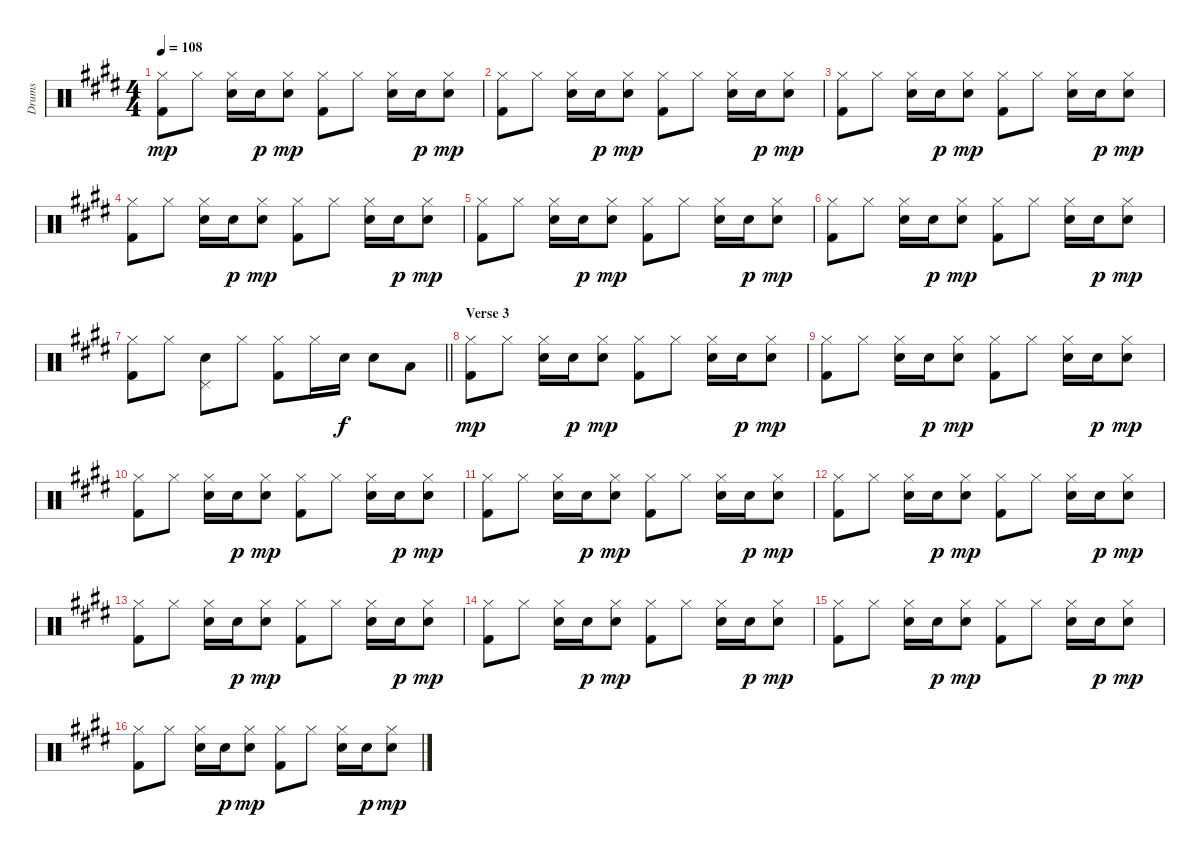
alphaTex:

\track ("Drums" "Drums") {instrument percussion bank 7}
\staff {score}
\articulation defaults
\ts (4 4)
\tempo 108
\clef neutral
\ks e
("Hi-Hat (closed)" "Kick (hit) 2").8{dy mp} "Hi-Hat (closed)".8 ("Electric Snare (hit)" "Hi-Hat (closed)").16 "Electric Snare (hit)".16{dy p} ("Electric Snare (hit)" "Hi-Hat (closed)").8{dy mp} ("Hi-Hat (closed)" "Kick (hit) 2").8 "Hi-Hat (closed)".8 ("Electric Snare (hit)" "Hi-Hat (closed)").16 "Electric Snare (hit)".16{dy p} ("Electric Snare (hit)" "Hi-Hat (closed)").8{dy mp} |
("Hi-Hat (closed)" "Kick (hit) 2").8 "Hi-Hat (closed)".8 ("Electric Snare (hit)" "Hi-Hat (closed)").16 "Electric Snare (hit)".16{dy p} ("Electric Snare (hit)" "Hi-Hat (closed)").8{dy mp} ("Hi-Hat (closed)" "Kick (hit) 2").8 "Hi-Hat (closed)".8 ("Electric Snare (hit)" "Hi-Hat (closed)").16 "Electric Snare (hit)".16{dy p} ("Electric Snare (hit)" "Hi-Hat (closed)").8{dy mp} |
("Hi-Hat (closed)" "Kick (hit) 2").8 "Hi-Hat (closed)".8 ("Electric Snare (hit)" "Hi-Hat (closed)").16 "Electric Snare (hit)".16{dy p} ("Electric Snare (hit)" "Hi-Hat (closed)").8{dy mp} ("Hi-Hat (closed)" "Kick (hit) 2").8 "Hi-Hat (closed)".8 ("Electric Snare (hit)" "Hi-Hat (closed)").16 "Electric Snare (hit)".16{dy p} ("Electric Snare (hit)" "Hi-Hat (closed)").8{dy mp} |
("Hi-Hat (closed)" "Kick (hit) 2").8 "Hi-Hat (closed)".8 ("Electric Snare (hit)" "Hi-Hat (closed)").16 "Electric Snare (hit)".16{dy p} ("Electric Snare (hit)" "Hi-Hat (closed)").8{dy mp} ("Hi-Hat (closed)" "Kick (hit) 2").8 "Hi-Hat (closed)".8 ("Electric Snare (hit)" "Hi-Hat (closed)").16 "Electric Snare (hit)".16{dy p} ("Electric Snare (hit)" "Hi-Hat (closed)").8{dy mp} |
("Hi-Hat (closed)" "Kick (hit) 2").8 "Hi-Hat (closed)".8 ("Electric Snare (hit)" "Hi-Hat (closed)").16 "Electric Snare (hit)".16{dy p} ("Electric Snare (hit)" "Hi-Hat (closed)").8{dy mp} ("Hi-Hat (closed)" "Kick (hit) 2").8 "Hi-Hat (closed)".8 ("Electric Snare (hit)" "Hi-Hat (closed)").16 "Electric Snare (hit)".16{dy p} ("Electric Snare (hit)" "Hi-Hat (closed)").8{dy mp} |
("Hi-Hat (closed)" "Kick (hit) 2").8 "Hi-Hat (closed)".8 ("Electric Snare (hit)" "Hi-Hat (closed)").16 "Electric Snare (hit)".16{dy p} ("Electric Snare (hit)" "Hi-Hat (closed)").8{dy mp} ("Hi-Hat (closed)" "Kick (hit) 2").8 "Hi-Hat (closed)".8 ("Electric Snare (hit)" "Hi-Hat (closed)").16 "Electric Snare (hit)".16{dy p} ("Electric Snare (hit)" "Hi-Hat (closed)").8{dy mp} |
\barLineRight lightlight
("Hi-Hat (closed)" "Kick (hit) 2").8 "Hi-Hat (closed)".8 ("Electric Snare (hit)" "Pedal Hi-Hat (hit)").8 "Hi-Hat (closed)".8 ("Hi-Hat (closed)" "Kick (hit) 2").8 "Hi-Hat (closed)".16 "Electric Snare (hit)".16{dy f} "Electric Snare (hit)".8 "Low Tom (hit)".8 |
\section ("" "Verse 3")
("Hi-Hat (closed)" "Kick (hit) 2").8{dy mp} "Hi-Hat (closed)".8 ("Electric Snare (hit)" "Hi-Hat (closed)").16 "Electric Snare (hit)".16{dy p} ("Electric Snare (hit)" "Hi-Hat (closed)").8{dy mp} ("Hi-Hat (closed)" "Kick (hit) 2").8 "Hi-Hat (closed)".8 ("Electric Snare (hit)" "Hi-Hat (closed)").16 "Electric Snare (hit)".16{dy p} ("Electric Snare (hit)" "Hi-Hat (closed)").8{dy mp} |
("Hi-Hat (closed)" "Kick (hit) 2").8 "Hi-Hat (closed)".8 ("Electric Snare (hit)" "Hi-Hat (closed)").16 "Electric Snare (hit)".16{dy p} ("Electric Snare (hit)" "Hi-Hat (closed)").8{dy mp} ("Hi-Hat (closed)" "Kick (hit) 2").8 "Hi-Hat (closed)".8 ("Electric Snare (hit)" "Hi-Hat (closed)").16 "Electric Snare (hit)".16{dy p} ("Electric Snare (hit)" "Hi-Hat (closed)").8{dy mp} |
("Hi-Hat (closed)" "Kick (hit) 2").8 "Hi-Hat (closed)".8 ("Electric Snare (hit)" "Hi-Hat (closed)").16 "Electric Snare (hit)".16{dy p} ("Electric Snare (hit)" "Hi-Hat (closed)").8{dy mp} ("Hi-Hat (closed)" "Kick (hit) 2").8 "Hi-Hat (closed)".8 ("Electric Snare (hit)" "Hi-Hat (closed)").16 "Electric Snare (hit)".16{dy p} ("Electric Snare (hit)" "Hi-Hat (closed)").8{dy mp} |
("Hi-Hat (closed)" "Kick (hit) 2").8 "Hi-Hat (closed)".8 ("Electric Snare (hit)" "Hi-Hat (closed)").16 "Electric Snare (hit)".16{dy p} ("Electric Snare (hit)" "Hi-Hat (closed)").8{dy mp} ("Hi-Hat (closed)" "Kick (hit) 2").8 "Hi-Hat (closed)".8 ("Electric Snare (hit)" "Hi-Hat (closed)").16 "Electric Snare (hit)".16{dy p} ("Electric Snare (hit)" "Hi-Hat (closed)").8{dy mp} |
("Hi-Hat (closed)" "Kick (hit) 2").8 "Hi-Hat (closed)".8 ("Electric Snare (hit)" "Hi-Hat (closed)").16 "Electric Snare (hit)".16{dy p} ("Electric Snare (hit)" "Hi-Hat (closed)").8{dy mp} ("Hi-Hat (closed)" "Kick (hit) 2").8 "Hi-Hat (closed)".8 ("Electric Snare (hit)" "Hi-Hat (closed)").16 "Electric Snare (hit)".16{dy p} ("Electric Snare (hit)" "Hi-Hat (closed)").8{dy mp} |
("Hi-Hat (closed)" "Kick (hit) 2").8 "Hi-Hat (closed)".8 ("Electric Snare (hit)" "Hi-Hat (closed)").16 "Electric Snare (hit)".16{dy p} ("Electric Snare (hit)" "Hi-Hat (closed)").8{dy mp} ("Hi-Hat (closed)" "Kick (hit) 2").8 "Hi-Hat (closed)".8 ("Electric Snare (hit)" "Hi-Hat (closed)").16 "Electric Snare (hit)".16{dy p} ("Electric Snare (hit)" "Hi-Hat (closed)").8{dy mp} |
("Hi-Hat (closed)" "Kick (hit) 2").8 "Hi-Hat (closed)".8 ("Electric Snare (hit)" "Hi-Hat (closed)").16 "Electric Snare (hit)".16{dy p} ("Electric Snare (hit)" "Hi-Hat (closed)").8{dy mp} ("Hi-Hat (closed)" "Kick (hit) 2").8 "Hi-Hat (closed)".8 ("Electric Snare (hit)" "Hi-Hat (closed)").16 "Electric Snare (hit)".16{dy p} ("Electric Snare (hit)" "Hi-Hat (closed)").8{dy mp} |
("Hi-Hat (closed)" "Kick (hit) 2").8 "Hi-Hat (closed)".8 ("Electric Snare (hit)" "Hi-Hat (closed)").16 "Electric Snare (hit)".16{dy p} ("Electric Snare (hit)" "Hi-Hat (closed)").8{dy mp} ("Hi-Hat (closed)" "Kick (hit) 2").8 "Hi-Hat (closed)".8 ("Electric Snare (hit)" "Hi-Hat (closed)").16 "Electric Snare (hit)".16{dy p} ("Electric Snare (hit)" "Hi-Hat (closed)").8{dy mp} |
("Hi-Hat (closed)" "Kick (hit) 2").8 "Hi-Hat (closed)".8 ("Electric Snare (hit)" "Hi-Hat (closed)").16 "Electric Snare (hit)".16{dy p} ("Electric Snare (hit)" "Hi-Hat (closed)").8{dy mp} ("Hi-Hat (closed)" "Kick (hit) 2").8 "Hi-Hat (closed)".8 ("Electric Snare (hit)" "Hi-Hat (closed)").16 "Electric Snare (hit)".16{dy p} ("Electric Snare (hit)" "Hi-Hat (closed)").8{dy mp}
